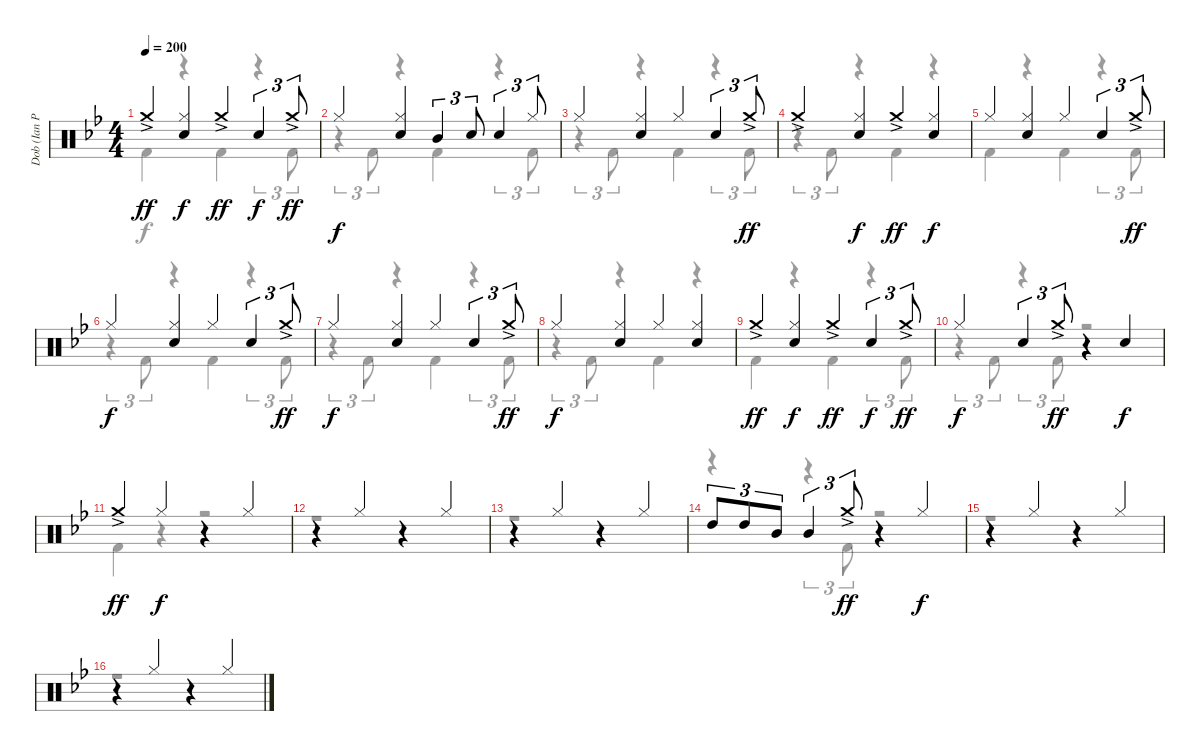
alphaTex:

\track ("Dob (Ian Paice)" "Dob (Ian P") {instrument percussion}
\staff {score}
\articulation defaults
\voice
\ts (4 4)
\tempo 200
\clef neutral
\ks bb "Crash medium (hit)"{ac}.4{dy ff}
("Hi-Hat (closed)" "Electric Snare (hit)").4{dy f} "Crash medium (hit)"{ac}.4{dy ff} "Electric Snare (hit)".4{tu (3 2) dy f} "Crash medium (hit)"{ac}.8{tu (3 2) dy ff} |
"Hi-Hat (closed)".4{dy f} ("Hi-Hat (closed)" "Electric Snare (hit)").4 "Mid Tom (hit)".4{tu (3 2)} "Electric Snare (hit)".8{tu (3 2)} "Electric Snare (hit)".4{tu (3 2)} "Hi-Hat (closed)".8{tu (3 2)} |
"Hi-Hat (closed)".4 ("Hi-Hat (closed)" "Electric Snare (hit)").4 "Hi-Hat (closed)".4 "Electric Snare (hit)".4{tu (3 2)} "Crash medium (hit)"{ac}.8{tu (3 2) dy ff} |
"Crash medium (hit)"{ac}.4 ("Hi-Hat (closed)" "Electric Snare (hit)").4{dy f} "Crash medium (hit)"{ac}.4{dy ff} ("Hi-Hat (closed)" "Electric Snare (hit)").4{dy f} |
"Hi-Hat (closed)".4 ("Hi-Hat (closed)" "Electric Snare (hit)").4 "Hi-Hat (closed)".4 "Electric Snare (hit)".4{tu (3 2)} "Crash medium (hit)"{ac}.8{tu (3 2) dy ff} |
"Hi-Hat (closed)".4{dy f} ("Hi-Hat (closed)" "Electric Snare (hit)").4 "Hi-Hat (closed)".4 "Electric Snare (hit)".4{tu (3 2)} "Crash medium (hit)"{ac}.8{tu (3 2) dy ff} |
"Hi-Hat (closed)".4{dy f} ("Hi-Hat (closed)" "Electric Snare (hit)").4 "Hi-Hat (closed)".4 "Electric Snare (hit)".4{tu (3 2)} "Crash medium (hit)"{ac}.8{tu (3 2) dy ff} |
"Hi-Hat (closed)".4{dy f} ("Hi-Hat (closed)" "Electric Snare (hit)").4 "Hi-Hat (closed)".4 ("Hi-Hat (closed)" "Electric Snare (hit)").4 |
"Crash medium (hit)"{ac}.4{dy ff} ("Hi-Hat (closed)" "Electric Snare (hit)").4{dy f} "Crash medium (hit)"{ac}.4{dy ff} "Electric Snare (hit)".4{tu (3 2) dy f} "Crash medium (hit)"{ac}.8{tu (3 2) dy ff} |
"Hi-Hat (closed)".4{dy f} "Electric Snare (hit)".4{tu (3 2)} "Crash medium (hit)"{ac}.8{tu (3 2) dy ff} r.4 "Electric Snare (hit)".4{dy f} |
"Crash medium (hit)"{ac}.4{dy ff} "Hi-Hat (closed)".4{dy f} r.4 "Hi-Hat (closed)".4 |
r.4 "Hi-Hat (closed)".4 r.4 "Hi-Hat (closed)".4 |
r.4 "Hi-Hat (closed)".4 r.4 "Hi-Hat (closed)".4 |
"High Tom (hit)".8{tu (3 2)} "High Tom (hit)".8{tu (3 2)} "Mid Tom (hit)".8{tu (3 2)} "Mid Tom (hit)".4{tu (3 2)} "Crash medium (hit)"{ac}.8{tu (3 2) dy ff} r.4 "Hi-Hat (closed)".4{dy f} |
r.4 "Hi-Hat (closed)".4 r.4 "Hi-Hat (closed)".4 |
r.4 "Hi-Hat (closed)".4 r.4 "Hi-Hat (closed)".4
\voice
\clef neutral
\ottava regular
\simile none
\ks bb "Kick (hit) 2".4{dy f}
r.4 "Kick (hit) 2".4 r.4{tu (3 2)} "Kick (hit) 2".8{tu (3 2)} |
r.4{tu (3 2)} "Kick (hit) 2".8{tu (3 2)} r.4 "Kick (hit) 2".4 r.4{tu (3 2)} "Kick (hit) 2".8{tu (3 2)} |
r.4{tu (3 2)} "Kick (hit) 2".8{tu (3 2)} r.4 "Kick (hit) 2".4 r.4{tu (3 2)} "Kick (hit) 2".8{tu (3 2)} |
r.4{tu (3 2)} "Kick (hit) 2".8{tu (3 2)} r.4 "Kick (hit) 2".4 r.4 |
"Kick (hit) 2".4 r.4 "Kick (hit) 2".4 r.4{tu (3 2)} "Kick (hit) 2".8{tu (3 2)} |
r.4{tu (3 2)} "Kick (hit) 2".8{tu (3 2)} r.4 "Kick (hit) 2".4 r.4{tu (3 2)} "Kick (hit) 2".8{tu (3 2)} |
r.4{tu (3 2)} "Kick (hit) 2".8{tu (3 2)} r.4 "Kick (hit) 2".4 r.4{tu (3 2)} "Kick (hit) 2".8{tu (3 2)} |
r.4{tu (3 2)} "Kick (hit) 2".8{tu (3 2)} r.4 "Kick (hit) 2".4 r.4 |
"Kick (hit) 2".4 r.4 "Kick (hit) 2".4 r.4{tu (3 2)} "Kick (hit) 2".8{tu (3 2)} |
r.4{tu (3 2)} "Kick (hit) 2".8{tu (3 2)} r.4{tu (3 2)} "Kick (hit) 2".8{tu (3 2)} r.2 |
"Kick (hit) 2".4 r.4 r.2 |
r.1 |
r.1 |
r.4 r.4{tu (3 2)} "Kick (hit) 2".8{tu (3 2)} r.2 |
r.1 |
r.1
